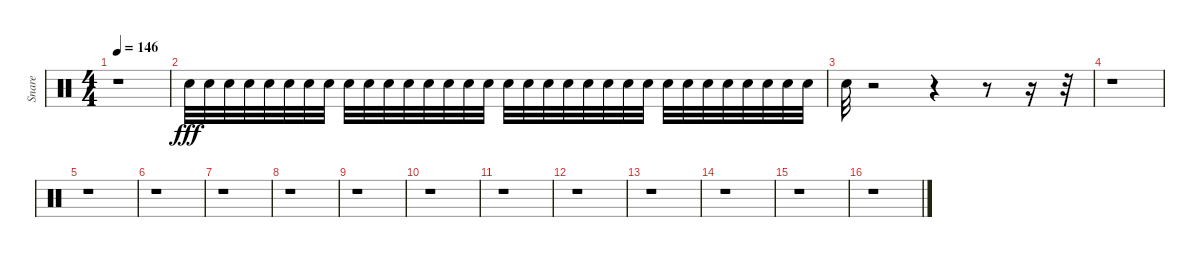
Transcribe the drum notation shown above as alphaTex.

\track ("Snare" "Snare") {instrument percussion}
\staff {score}
\articulation defaults
\ts (4 4)
\tempo 146
\clef neutral
\ks c
r.1{dy fff} |
"Electric Snare (hit)".32{volume 1} "Electric Snare (hit)".32{volume 2} "Electric Snare (hit)".32{volume 2} "Electric Snare (hit)".32{volume 2} "Electric Snare (hit)".32{volume 2} "Electric Snare (hit)".32{volume 3} "Electric Snare (hit)".32{volume 3} "Electric Snare (hit)".32{volume 3} "Electric Snare (hit)".32{volume 4} "Electric Snare (hit)".32{volume 4} "Electric Snare (hit)".32{volume 4} "Electric Snare (hit)".32{volume 5} "Electric Snare (hit)".32{volume 5} "Electric Snare (hit)".32{volume 5} "Electric Snare (hit)".32{volume 6} "Electric Snare (hit)".32{volume 6} "Electric Snare (hit)".32{volume 6} "Electric Snare (hit)".32{volume 6} "Electric Snare (hit)".32{volume 7} "Electric Snare (hit)".32{volume 7} "Electric Snare (hit)".32{volume 8} "Electric Snare (hit)".32{volume 8} "Electric Snare (hit)".32{volume 8} "Electric Snare (hit)".32{volume 8} "Electric Snare (hit)".32{volume 9} "Electric Snare (hit)".32{volume 9} "Electric Snare (hit)".32{volume 9} "Electric Snare (hit)".32{volume 10} "Electric Snare (hit)".32{volume 10} "Electric Snare (hit)".32{volume 10} "Electric Snare (hit)".32{volume 11} "Electric Snare (hit)".32{volume 11} |
"Electric Snare (hit)".32{volume 11} r.2 r.4 r.8 r.16 r.32 |
r.1 |
r.1 |
r.1 |
r.1 |
r.1 |
r.1 |
r.1 |
r.1 |
r.1 |
r.1 |
r.1 |
r.1 |
r.1
